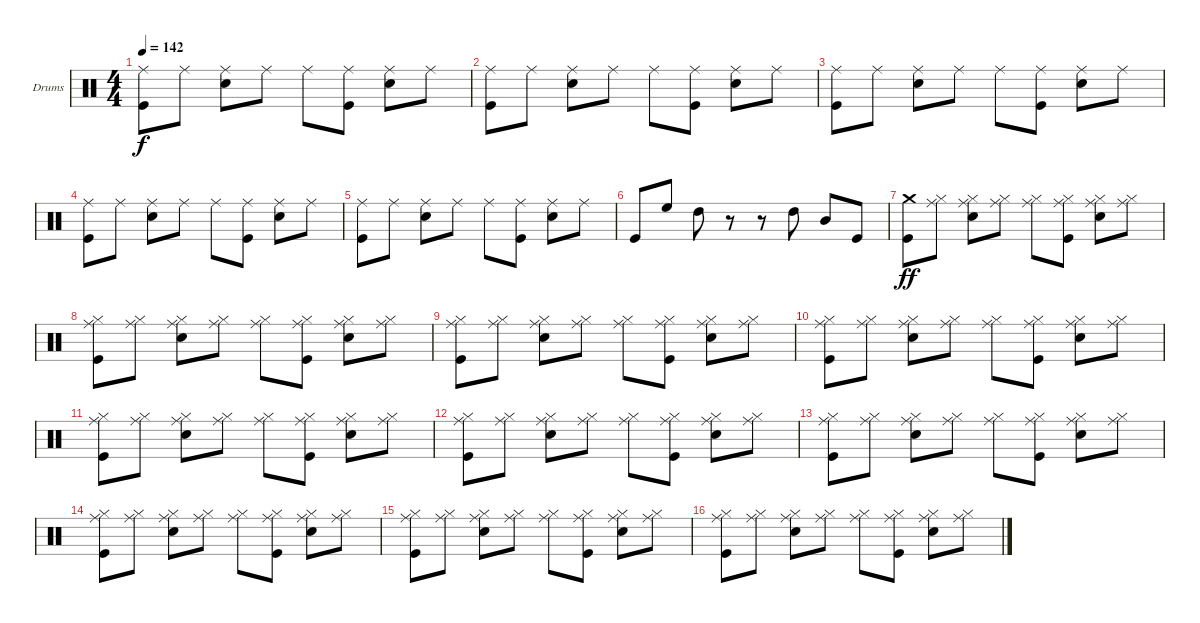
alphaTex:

\bracketExtendMode groupsimilarinstruments
\firstSystemTrackNameOrientation horizontal
\otherSystemsTrackNameOrientation horizontal
\track ("Drumkit" "Drums") {instrument percussion}
\staff {score}
\articulation defaults
\ts (4 4)
\tempo 142
\clef neutral
\ks c
("Ride (middle)" "Kick (hit)").8{dy f} "Ride (middle)".8 ("Ride (middle)" "Snare (hit) 2").8 "Ride (middle)".8 "Ride (middle)".8 ("Ride (middle)" "Kick (hit)").8 ("Ride (middle)" "Snare (hit) 2").8 "Ride (middle)".8 |
("Kick (hit)" "Ride (middle)").8 "Ride (middle)".8 ("Ride (middle)" "Snare (hit) 2").8 "Ride (middle)".8 "Ride (middle)".8 ("Ride (middle)" "Kick (hit)").8 ("Ride (middle)" "Snare (hit) 2").8 "Ride (middle)".8 |
("Ride (middle)" "Kick (hit)").8 "Ride (middle)".8 ("Ride (middle)" "Snare (hit) 2").8 "Ride (middle)".8 "Ride (middle)".8 ("Ride (middle)" "Kick (hit)").8 ("Ride (middle)" "Snare (hit) 2").8 "Ride (middle)".8 |
("Ride (middle)" "Kick (hit)").8 "Ride (middle)".8 ("Ride (middle)" "Snare (hit) 2").8 "Ride (middle)".8 "Ride (middle)".8 ("Ride (middle)" "Kick (hit)").8 ("Ride (middle)" "Snare (hit) 2").8 "Ride (middle)".8 |
("Ride (middle)" "Kick (hit)").8 "Ride (middle)".8 ("Ride (middle)" "Snare (hit) 2").8 "Ride (middle)".8 "Ride (middle)".8 ("Ride (middle)" "Kick (hit)").8 ("Ride (middle)" "Snare (hit) 2").8 "Ride (middle)".8 |
"Kick (hit)".8 "High Floor Tom (hit)".8 "High Tom (hit)".8 r.8 r.8 "High Tom (hit)".8 "Mid Tom (hit)".8 "Kick (hit)".8 |
("Kick (hit)" "Crash medium (hit)").8{dy ff} ("Ride (middle)" "Hi-Hat (closed)").8 ("Ride (middle)" "Snare (hit) 2" "Hi-Hat (closed)").8 ("Ride (middle)" "Hi-Hat (closed)").8 ("Ride (middle)" "Hi-Hat (closed)").8 ("Ride (middle)" "Kick (hit)" "Hi-Hat (closed)").8 ("Ride (middle)" "Snare (hit) 2" "Hi-Hat (closed)").8 ("Ride (middle)" "Hi-Hat (closed)").8 |
("Ride (middle)" "Kick (hit)" "Hi-Hat (closed)").8 ("Ride (middle)" "Hi-Hat (closed)").8 ("Ride (middle)" "Snare (hit) 2" "Hi-Hat (closed)").8 ("Ride (middle)" "Hi-Hat (closed)").8 ("Ride (middle)" "Hi-Hat (closed)").8 ("Ride (middle)" "Kick (hit)" "Hi-Hat (closed)").8 ("Ride (middle)" "Snare (hit) 2" "Hi-Hat (closed)").8 ("Ride (middle)" "Hi-Hat (closed)").8 |
("Ride (middle)" "Kick (hit)" "Hi-Hat (closed)").8 ("Ride (middle)" "Hi-Hat (closed)").8 ("Ride (middle)" "Snare (hit) 2" "Hi-Hat (closed)").8 ("Ride (middle)" "Hi-Hat (closed)").8 ("Ride (middle)" "Hi-Hat (closed)").8 ("Ride (middle)" "Kick (hit)" "Hi-Hat (closed)").8 ("Ride (middle)" "Snare (hit) 2" "Hi-Hat (closed)").8 ("Ride (middle)" "Hi-Hat (closed)").8 |
("Ride (middle)" "Kick (hit)" "Hi-Hat (closed)").8 ("Ride (middle)" "Hi-Hat (closed)").8 ("Ride (middle)" "Snare (hit) 2" "Hi-Hat (closed)").8 ("Ride (middle)" "Hi-Hat (closed)").8 ("Ride (middle)" "Hi-Hat (closed)").8 ("Ride (middle)" "Kick (hit)" "Hi-Hat (closed)").8 ("Ride (middle)" "Snare (hit) 2" "Hi-Hat (closed)").8 ("Ride (middle)" "Hi-Hat (closed)").8 |
("Kick (hit)" "Hi-Hat (closed)" "Ride (middle)").8 ("Ride (middle)" "Hi-Hat (closed)").8 ("Ride (middle)" "Snare (hit) 2" "Hi-Hat (closed)").8 ("Ride (middle)" "Hi-Hat (closed)").8 ("Ride (middle)" "Hi-Hat (closed)").8 ("Ride (middle)" "Kick (hit)" "Hi-Hat (closed)").8 ("Ride (middle)" "Snare (hit) 2" "Hi-Hat (closed)").8 ("Ride (middle)" "Hi-Hat (closed)").8 |
("Ride (middle)" "Kick (hit)" "Hi-Hat (closed)").8 ("Ride (middle)" "Hi-Hat (closed)").8 ("Ride (middle)" "Snare (hit) 2" "Hi-Hat (closed)").8 ("Ride (middle)" "Hi-Hat (closed)").8 ("Ride (middle)" "Hi-Hat (closed)").8 ("Ride (middle)" "Kick (hit)" "Hi-Hat (closed)").8 ("Ride (middle)" "Snare (hit) 2" "Hi-Hat (closed)").8 ("Ride (middle)" "Hi-Hat (closed)").8 |
("Ride (middle)" "Kick (hit)" "Hi-Hat (closed)").8 ("Ride (middle)" "Hi-Hat (closed)").8 ("Ride (middle)" "Snare (hit) 2" "Hi-Hat (closed)").8 ("Ride (middle)" "Hi-Hat (closed)").8 ("Ride (middle)" "Hi-Hat (closed)").8 ("Ride (middle)" "Kick (hit)" "Hi-Hat (closed)").8 ("Ride (middle)" "Snare (hit) 2" "Hi-Hat (closed)").8 ("Ride (middle)" "Hi-Hat (closed)").8 |
("Ride (middle)" "Kick (hit)" "Hi-Hat (closed)").8 ("Ride (middle)" "Hi-Hat (closed)").8 ("Ride (middle)" "Snare (hit) 2" "Hi-Hat (closed)").8 ("Ride (middle)" "Hi-Hat (closed)").8 ("Ride (middle)" "Hi-Hat (closed)").8 ("Ride (middle)" "Kick (hit)" "Hi-Hat (closed)").8 ("Ride (middle)" "Snare (hit) 2" "Hi-Hat (closed)").8 ("Ride (middle)" "Hi-Hat (closed)").8 |
("Ride (middle)" "Kick (hit)" "Hi-Hat (closed)").8 ("Ride (middle)" "Hi-Hat (closed)").8 ("Ride (middle)" "Snare (hit) 2" "Hi-Hat (closed)").8 ("Ride (middle)" "Hi-Hat (closed)").8 ("Ride (middle)" "Hi-Hat (closed)").8 ("Ride (middle)" "Kick (hit)" "Hi-Hat (closed)").8 ("Ride (middle)" "Snare (hit) 2" "Hi-Hat (closed)").8 ("Ride (middle)" "Hi-Hat (closed)").8 |
("Ride (middle)" "Kick (hit)" "Hi-Hat (closed)").8 ("Ride (middle)" "Hi-Hat (closed)").8 ("Ride (middle)" "Snare (hit) 2" "Hi-Hat (closed)").8 ("Ride (middle)" "Hi-Hat (closed)").8 ("Ride (middle)" "Hi-Hat (closed)").8 ("Ride (middle)" "Kick (hit)" "Hi-Hat (closed)").8 ("Ride (middle)" "Snare (hit) 2" "Hi-Hat (closed)").8 ("Ride (middle)" "Hi-Hat (closed)").8
